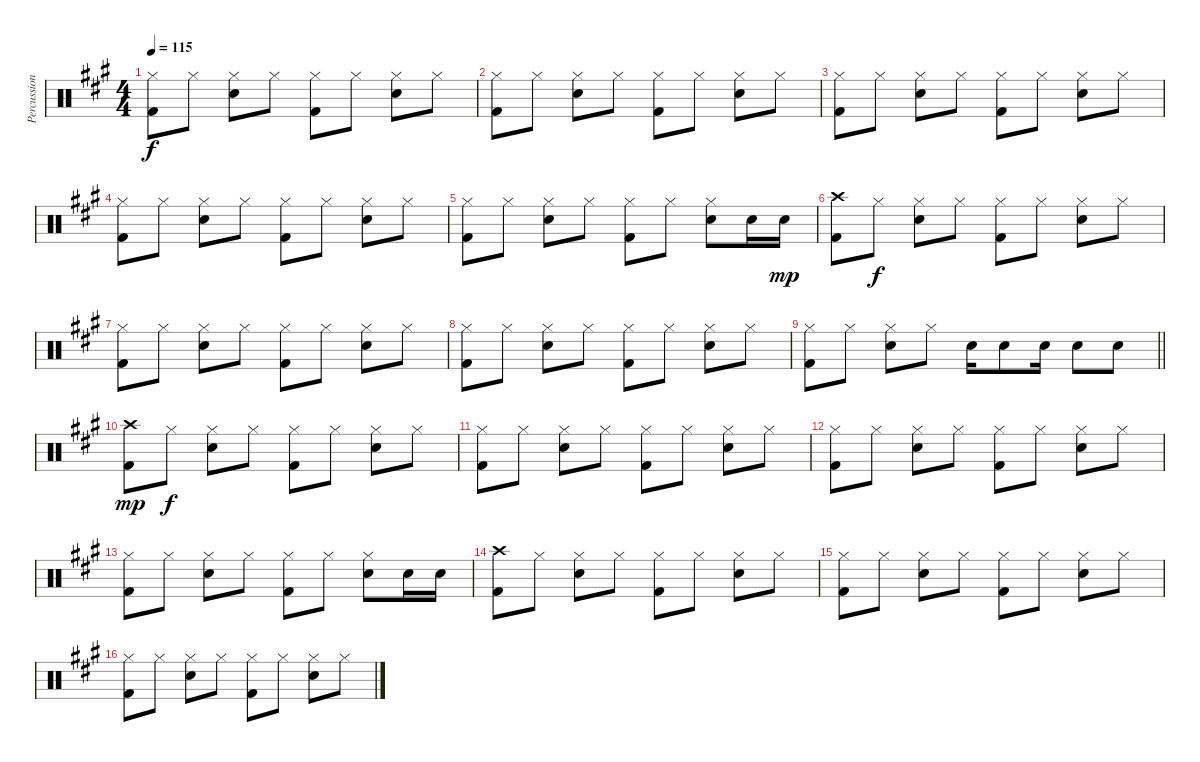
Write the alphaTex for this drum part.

\track ("Percussion" "Percussion") {instrument percussion}
\staff {score}
\articulation defaults
\ts (4 4)
\tempo 115
\clef neutral
\ks a
("Hi-Hat (closed)" "Kick (hit) 2").8{dy f} "Hi-Hat (closed)".8 ("Hi-Hat (closed)" "Snare (hit) 2").8 "Hi-Hat (closed)".8 ("Hi-Hat (closed)" "Kick (hit) 2").8 "Hi-Hat (closed)".8 ("Hi-Hat (closed)" "Snare (hit) 2").8 "Hi-Hat (closed)".8 |
("Hi-Hat (closed)" "Kick (hit) 2").8 "Hi-Hat (closed)".8 ("Hi-Hat (closed)" "Snare (hit) 2").8 "Hi-Hat (closed)".8 ("Hi-Hat (closed)" "Kick (hit) 2").8 "Hi-Hat (closed)".8 ("Hi-Hat (closed)" "Snare (hit) 2").8 "Hi-Hat (closed)".8 |
("Hi-Hat (closed)" "Kick (hit) 2").8 "Hi-Hat (closed)".8 ("Hi-Hat (closed)" "Snare (hit) 2").8 "Hi-Hat (closed)".8 ("Hi-Hat (closed)" "Kick (hit) 2").8 "Hi-Hat (closed)".8 ("Hi-Hat (closed)" "Snare (hit) 2").8 "Hi-Hat (closed)".8 |
("Hi-Hat (closed)" "Kick (hit) 2").8 "Hi-Hat (closed)".8 ("Hi-Hat (closed)" "Snare (hit) 2").8 "Hi-Hat (closed)".8 ("Hi-Hat (closed)" "Kick (hit) 2").8 "Hi-Hat (closed)".8 ("Hi-Hat (closed)" "Snare (hit) 2").8 "Hi-Hat (closed)".8 |
("Hi-Hat (closed)" "Kick (hit) 2").8 "Hi-Hat (closed)".8 ("Hi-Hat (closed)" "Snare (hit) 2").8 "Hi-Hat (closed)".8 ("Hi-Hat (closed)" "Kick (hit) 2").8 "Hi-Hat (closed)".8 ("Hi-Hat (closed)" "Snare (hit) 2").8 "Snare (hit) 2".16 "Snare (hit) 2".16{dy mp} |
("Crash high (hit)" "Kick (hit) 2").8 "Hi-Hat (closed)".8{dy f} ("Hi-Hat (closed)" "Snare (hit) 2").8 "Hi-Hat (closed)".8 ("Hi-Hat (closed)" "Kick (hit) 2").8 "Hi-Hat (closed)".8 ("Hi-Hat (closed)" "Snare (hit) 2").8 "Hi-Hat (closed)".8 |
("Hi-Hat (closed)" "Kick (hit) 2").8 "Hi-Hat (closed)".8 ("Hi-Hat (closed)" "Snare (hit) 2").8 "Hi-Hat (closed)".8 ("Hi-Hat (closed)" "Kick (hit) 2").8 "Hi-Hat (closed)".8 ("Hi-Hat (closed)" "Snare (hit) 2").8 "Hi-Hat (closed)".8 |
("Hi-Hat (closed)" "Kick (hit) 2").8 "Hi-Hat (closed)".8 ("Hi-Hat (closed)" "Snare (hit) 2").8 "Hi-Hat (closed)".8 ("Hi-Hat (closed)" "Kick (hit) 2").8 "Hi-Hat (closed)".8 ("Hi-Hat (closed)" "Snare (hit) 2").8 "Hi-Hat (closed)".8 |
\barLineRight lightlight
("Hi-Hat (closed)" "Kick (hit) 2").8 "Hi-Hat (closed)".8 ("Hi-Hat (closed)" "Snare (hit) 2").8 "Hi-Hat (closed)".8 "Snare (hit) 2".16 "Snare (hit) 2".8 "Snare (hit) 2".16 "Snare (hit) 2".8 "Snare (hit) 2".8 |
("Crash high (hit)" "Kick (hit) 2").8{dy mp} "Hi-Hat (closed)".8{dy f} ("Hi-Hat (closed)" "Snare (hit) 2").8 "Hi-Hat (closed)".8 ("Hi-Hat (closed)" "Kick (hit) 2").8 "Hi-Hat (closed)".8 ("Hi-Hat (closed)" "Snare (hit) 2").8 "Hi-Hat (closed)".8 |
("Hi-Hat (closed)" "Kick (hit) 2").8 "Hi-Hat (closed)".8 ("Hi-Hat (closed)" "Snare (hit) 2").8 "Hi-Hat (closed)".8 ("Hi-Hat (closed)" "Kick (hit) 2").8 "Hi-Hat (closed)".8 ("Hi-Hat (closed)" "Snare (hit) 2").8 "Hi-Hat (closed)".8 |
("Hi-Hat (closed)" "Kick (hit) 2").8 "Hi-Hat (closed)".8 ("Hi-Hat (closed)" "Snare (hit) 2").8 "Hi-Hat (closed)".8 ("Hi-Hat (closed)" "Kick (hit) 2").8 "Hi-Hat (closed)".8 ("Hi-Hat (closed)" "Snare (hit) 2").8 "Hi-Hat (closed)".8 |
("Hi-Hat (closed)" "Kick (hit) 2").8 "Hi-Hat (closed)".8 ("Hi-Hat (closed)" "Snare (hit) 2").8 "Hi-Hat (closed)".8 ("Hi-Hat (closed)" "Kick (hit) 2").8 "Hi-Hat (closed)".8 ("Hi-Hat (closed)" "Snare (hit) 2").8 "Snare (hit) 2".16 "Snare (hit) 2".16 |
("Crash high (hit)" "Kick (hit) 2").8 "Hi-Hat (closed)".8 ("Hi-Hat (closed)" "Snare (hit) 2").8 "Hi-Hat (closed)".8 ("Hi-Hat (closed)" "Kick (hit) 2").8 "Hi-Hat (closed)".8 ("Hi-Hat (closed)" "Snare (hit) 2").8 "Hi-Hat (closed)".8 |
("Hi-Hat (closed)" "Kick (hit) 2").8 "Hi-Hat (closed)".8 ("Hi-Hat (closed)" "Snare (hit) 2").8 "Hi-Hat (closed)".8 ("Hi-Hat (closed)" "Kick (hit) 2").8 "Hi-Hat (closed)".8 ("Hi-Hat (closed)" "Snare (hit) 2").8 "Hi-Hat (closed)".8 |
("Hi-Hat (closed)" "Kick (hit) 2").8 "Hi-Hat (closed)".8 ("Hi-Hat (closed)" "Snare (hit) 2").8 "Hi-Hat (closed)".8 ("Hi-Hat (closed)" "Kick (hit) 2").8 "Hi-Hat (closed)".8 ("Hi-Hat (closed)" "Snare (hit) 2").8 "Hi-Hat (closed)".8
